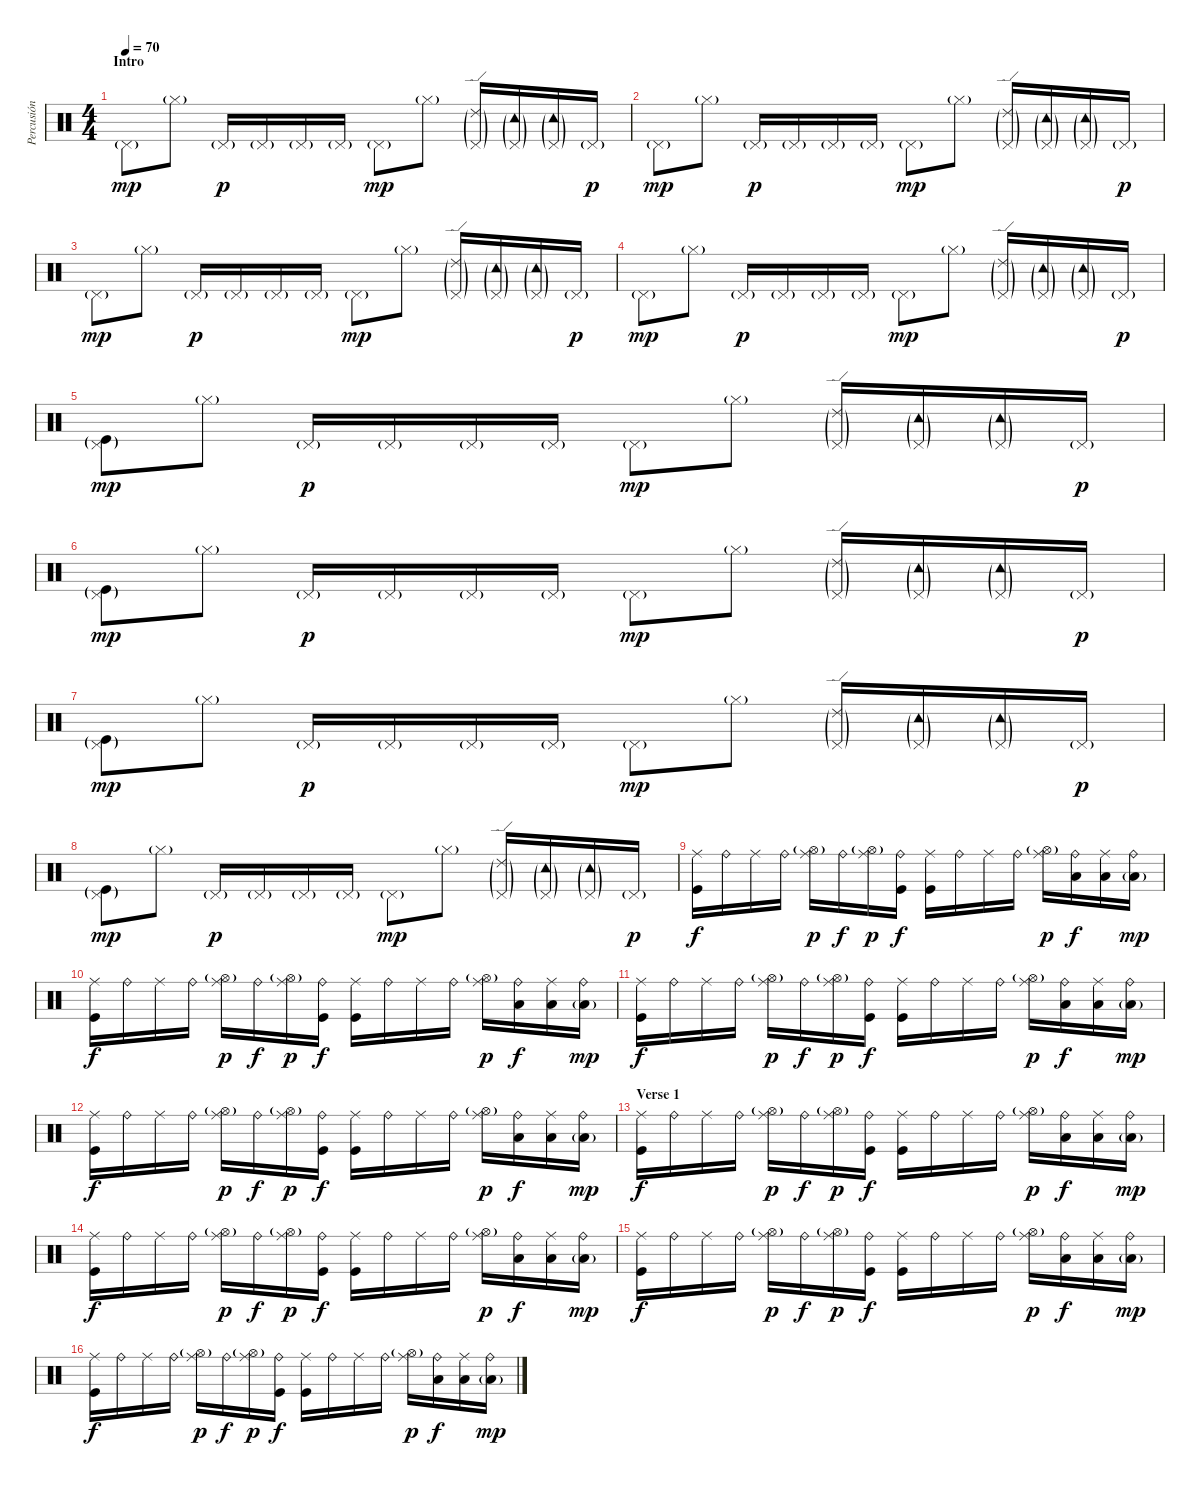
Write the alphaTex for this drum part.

\track ("Percusión" "Percusión") {instrument percussion}
\staff {score}
\articulation defaults
\ts (4 4)
\section ("" "Intro")
\tempo 70
\clef neutral
\ks c "Pedal Hi-Hat (hit)"{g}.8{dy mp} "Hi-Hat (closed)"{g}.8 "Pedal Hi-Hat (hit)"{g}.16{dy p} "Pedal Hi-Hat (hit)"{g}.16 "Pedal Hi-Hat (hit)"{g}.16 "Pedal Hi-Hat (hit)"{g}.16 "Pedal Hi-Hat (hit)"{g}.8{dy mp} "Hi-Hat (closed)"{g}.8
("Pedal Hi-Hat (hit)"{g} "Ride (edge) 2"{g}).16 ("Pedal Hi-Hat (hit)"{g} "Tambourine (hit)"{g}).16 ("Pedal Hi-Hat (hit)"{g} "Tambourine (hit)"{g}).16 "Pedal Hi-Hat (hit)"{g}.16{dy p} |
"Pedal Hi-Hat (hit)"{g}.8{dy mp} "Hi-Hat (closed)"{g}.8 "Pedal Hi-Hat (hit)"{g}.16{dy p} "Pedal Hi-Hat (hit)"{g}.16 "Pedal Hi-Hat (hit)"{g}.16 "Pedal Hi-Hat (hit)"{g}.16 "Pedal Hi-Hat (hit)"{g}.8{dy mp} "Hi-Hat (closed)"{g}.8 ("Pedal Hi-Hat (hit)"{g} "Ride (edge) 2"{g}).16 ("Pedal Hi-Hat (hit)"{g} "Tambourine (hit)"{g}).16 ("Pedal Hi-Hat (hit)"{g} "Tambourine (hit)"{g}).16 "Pedal Hi-Hat (hit)"{g}.16{dy p} |
"Pedal Hi-Hat (hit)"{g}.8{dy mp} "Hi-Hat (closed)"{g}.8 "Pedal Hi-Hat (hit)"{g}.16{dy p} "Pedal Hi-Hat (hit)"{g}.16 "Pedal Hi-Hat (hit)"{g}.16 "Pedal Hi-Hat (hit)"{g}.16 "Pedal Hi-Hat (hit)"{g}.8{dy mp} "Hi-Hat (closed)"{g}.8 ("Pedal Hi-Hat (hit)"{g} "Ride (edge) 2"{g}).16 ("Pedal Hi-Hat (hit)"{g} "Tambourine (hit)"{g}).16 ("Pedal Hi-Hat (hit)"{g} "Tambourine (hit)"{g}).16 "Pedal Hi-Hat (hit)"{g}.16{dy p} |
"Pedal Hi-Hat (hit)"{g}.8{dy mp} "Hi-Hat (closed)"{g}.8 "Pedal Hi-Hat (hit)"{g}.16{dy p} "Pedal Hi-Hat (hit)"{g}.16 "Pedal Hi-Hat (hit)"{g}.16 "Pedal Hi-Hat (hit)"{g}.16 "Pedal Hi-Hat (hit)"{g}.8{dy mp} "Hi-Hat (closed)"{g}.8 ("Pedal Hi-Hat (hit)"{g} "Ride (edge) 2"{g}).16 ("Pedal Hi-Hat (hit)"{g} "Tambourine (hit)"{g}).16 ("Pedal Hi-Hat (hit)"{g} "Tambourine (hit)"{g}).16 "Pedal Hi-Hat (hit)"{g}.16{dy p} |
("Pedal Hi-Hat (hit)"{g} "Kick (hit)"{g}).8{dy mp} "Hi-Hat (closed)"{g}.8 "Pedal Hi-Hat (hit)"{g}.16{dy p} "Pedal Hi-Hat (hit)"{g}.16 "Pedal Hi-Hat (hit)"{g}.16 "Pedal Hi-Hat (hit)"{g}.16 "Pedal Hi-Hat (hit)"{g}.8{dy mp} "Hi-Hat (closed)"{g}.8 ("Pedal Hi-Hat (hit)"{g} "Ride (edge) 2"{g}).16 ("Pedal Hi-Hat (hit)"{g} "Tambourine (hit)"{g}).16 ("Pedal Hi-Hat (hit)"{g} "Tambourine (hit)"{g}).16 "Pedal Hi-Hat (hit)"{g}.16{dy p} |
("Pedal Hi-Hat (hit)"{g} "Kick (hit)"{g}).8{dy mp} "Hi-Hat (closed)"{g}.8 "Pedal Hi-Hat (hit)"{g}.16{dy p} "Pedal Hi-Hat (hit)"{g}.16 "Pedal Hi-Hat (hit)"{g}.16 "Pedal Hi-Hat (hit)"{g}.16 "Pedal Hi-Hat (hit)"{g}.8{dy mp} "Hi-Hat (closed)"{g}.8 ("Pedal Hi-Hat (hit)"{g} "Ride (edge) 2"{g}).16 ("Pedal Hi-Hat (hit)"{g} "Tambourine (hit)"{g}).16 ("Pedal Hi-Hat (hit)"{g} "Tambourine (hit)"{g}).16 "Pedal Hi-Hat (hit)"{g}.16{dy p} |
("Pedal Hi-Hat (hit)"{g} "Kick (hit)"{g}).8{dy mp} "Hi-Hat (closed)"{g}.8 "Pedal Hi-Hat (hit)"{g}.16{dy p} "Pedal Hi-Hat (hit)"{g}.16 "Pedal Hi-Hat (hit)"{g}.16 "Pedal Hi-Hat (hit)"{g}.16 "Pedal Hi-Hat (hit)"{g}.8{dy mp} "Hi-Hat (closed)"{g}.8 ("Pedal Hi-Hat (hit)"{g} "Ride (edge) 2"{g}).16 ("Pedal Hi-Hat (hit)"{g} "Tambourine (hit)"{g}).16 ("Pedal Hi-Hat (hit)"{g} "Tambourine (hit)"{g}).16 "Pedal Hi-Hat (hit)"{g}.16{dy p} |
("Pedal Hi-Hat (hit)"{g} "Kick (hit)"{g}).8{dy mp} "Hi-Hat (closed)"{g}.8 "Pedal Hi-Hat (hit)"{g}.16{dy p} "Pedal Hi-Hat (hit)"{g}.16 "Pedal Hi-Hat (hit)"{g}.16 "Pedal Hi-Hat (hit)"{g}.16 "Pedal Hi-Hat (hit)"{g}.8{dy mp} "Hi-Hat (closed)"{g}.8 ("Pedal Hi-Hat (hit)"{g} "Ride (edge) 2"{g}).16 ("Pedal Hi-Hat (hit)"{g} "Tambourine (hit)"{g}).16 ("Pedal Hi-Hat (hit)"{g} "Tambourine (hit)"{g}).16 "Pedal Hi-Hat (hit)"{g}.16{dy p} |
("Ride (middle)" "Kick (hit)").16{dy f} "Ride (bell)".16 "Ride (middle)".16 "Ride (bell)".16 ("Ride (middle)" "Hi-Hat (open)"{g}).16{dy p} "Ride (bell)".16{dy f} ("Ride (middle)" "Hi-Hat (open)"{g}).16{dy p} ("Ride (bell)" "Kick (hit)").16{dy f} ("Ride (middle)" "Kick (hit)").16 "Ride (bell)".16 "Ride (middle)".16 "Ride (bell)".16 ("Ride (middle)" "Hi-Hat (open)"{g}).16{dy p} ("Ride (bell)" "Low Tom (hit)").16{dy f} ("Ride (middle)" "Low Tom (hit)").16 ("Ride (bell)" "Low Floor Tom (hit)"{g}).16{dy mp} |
("Ride (middle)" "Kick (hit)").16{dy f} "Ride (bell)".16 "Ride (middle)".16 "Ride (bell)".16 ("Ride (middle)" "Hi-Hat (open)"{g}).16{dy p} "Ride (bell)".16{dy f} ("Ride (middle)" "Hi-Hat (open)"{g}).16{dy p} ("Ride (bell)" "Kick (hit)").16{dy f} ("Ride (middle)" "Kick (hit)").16 "Ride (bell)".16 "Ride (middle)".16 "Ride (bell)".16 ("Ride (middle)" "Hi-Hat (open)"{g}).16{dy p} ("Ride (bell)" "Low Tom (hit)").16{dy f} ("Ride (middle)" "Low Tom (hit)").16 ("Ride (bell)" "Low Floor Tom (hit)"{g}).16{dy mp} |
("Ride (middle)" "Kick (hit)").16{dy f} "Ride (bell)".16 "Ride (middle)".16 "Ride (bell)".16 ("Ride (middle)" "Hi-Hat (open)"{g}).16{dy p} "Ride (bell)".16{dy f} ("Ride (middle)" "Hi-Hat (open)"{g}).16{dy p} ("Ride (bell)" "Kick (hit)").16{dy f} ("Ride (middle)" "Kick (hit)").16 "Ride (bell)".16 "Ride (middle)".16 "Ride (bell)".16 ("Ride (middle)" "Hi-Hat (open)"{g}).16{dy p} ("Ride (bell)" "Low Tom (hit)").16{dy f} ("Ride (middle)" "Low Tom (hit)").16 ("Ride (bell)" "Low Floor Tom (hit)"{g}).16{dy mp} |
("Ride (middle)" "Kick (hit)").16{dy f} "Ride (bell)".16 "Ride (middle)".16 "Ride (bell)".16 ("Ride (middle)" "Hi-Hat (open)"{g}).16{dy p} "Ride (bell)".16{dy f} ("Ride (middle)" "Hi-Hat (open)"{g}).16{dy p} ("Ride (bell)" "Kick (hit)").16{dy f} ("Ride (middle)" "Kick (hit)").16 "Ride (bell)".16 "Ride (middle)".16 "Ride (bell)".16 ("Ride (middle)" "Hi-Hat (open)"{g}).16{dy p} ("Ride (bell)" "Low Tom (hit)").16{dy f} ("Ride (middle)" "Low Tom (hit)").16 ("Ride (bell)" "Low Floor Tom (hit)"{g}).16{dy mp} |
\section ("" "Verse 1")
("Ride (middle)" "Kick (hit)").16{dy f} "Ride (bell)".16 "Ride (middle)".16 "Ride (bell)".16 ("Ride (middle)" "Hi-Hat (open)"{g}).16{dy p} "Ride (bell)".16{dy f} ("Ride (middle)" "Hi-Hat (open)"{g}).16{dy p} ("Ride (bell)" "Kick (hit)").16{dy f} ("Ride (middle)" "Kick (hit)").16 "Ride (bell)".16 "Ride (middle)".16 "Ride (bell)".16 ("Ride (middle)" "Hi-Hat (open)"{g}).16{dy p} ("Ride (bell)" "Low Tom (hit)").16{dy f} ("Ride (middle)" "Low Tom (hit)").16 ("Ride (bell)" "Low Floor Tom (hit)"{g}).16{dy mp} |
("Ride (middle)" "Kick (hit)").16{dy f} "Ride (bell)".16 "Ride (middle)".16 "Ride (bell)".16 ("Ride (middle)" "Hi-Hat (open)"{g}).16{dy p} "Ride (bell)".16{dy f} ("Ride (middle)" "Hi-Hat (open)"{g}).16{dy p} ("Ride (bell)" "Kick (hit)").16{dy f} ("Ride (middle)" "Kick (hit)").16 "Ride (bell)".16 "Ride (middle)".16 "Ride (bell)".16 ("Ride (middle)" "Hi-Hat (open)"{g}).16{dy p} ("Ride (bell)" "Low Tom (hit)").16{dy f} ("Ride (middle)" "Low Tom (hit)").16 ("Ride (bell)" "Low Floor Tom (hit)"{g}).16{dy mp} |
("Ride (middle)" "Kick (hit)").16{dy f} "Ride (bell)".16 "Ride (middle)".16 "Ride (bell)".16 ("Ride (middle)" "Hi-Hat (open)"{g}).16{dy p} "Ride (bell)".16{dy f} ("Ride (middle)" "Hi-Hat (open)"{g}).16{dy p} ("Ride (bell)" "Kick (hit)").16{dy f} ("Ride (middle)" "Kick (hit)").16 "Ride (bell)".16 "Ride (middle)".16 "Ride (bell)".16 ("Ride (middle)" "Hi-Hat (open)"{g}).16{dy p} ("Ride (bell)" "Low Tom (hit)").16{dy f} ("Ride (middle)" "Low Tom (hit)").16 ("Ride (bell)" "Low Floor Tom (hit)"{g}).16{dy mp} |
("Ride (middle)" "Kick (hit)").16{dy f} "Ride (bell)".16 "Ride (middle)".16 "Ride (bell)".16 ("Ride (middle)" "Hi-Hat (open)"{g}).16{dy p} "Ride (bell)".16{dy f} ("Ride (middle)" "Hi-Hat (open)"{g}).16{dy p} ("Ride (bell)" "Kick (hit)").16{dy f} ("Ride (middle)" "Kick (hit)").16 "Ride (bell)".16 "Ride (middle)".16 "Ride (bell)".16 ("Ride (middle)" "Hi-Hat (open)"{g}).16{dy p} ("Ride (bell)" "Low Tom (hit)").16{dy f} ("Ride (middle)" "Low Tom (hit)").16 ("Ride (bell)" "Low Floor Tom (hit)"{g}).16{dy mp}
